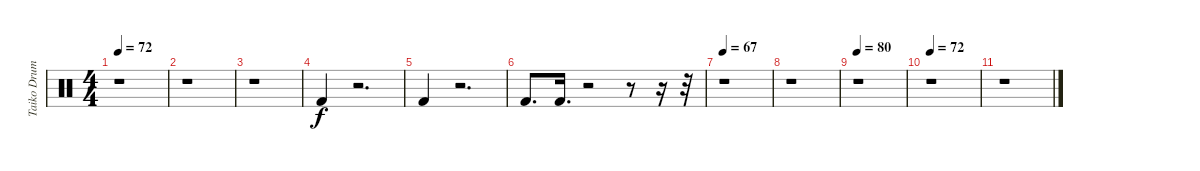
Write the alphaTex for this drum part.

\track ("Taiko Drum" "Taiko Drum") {instrument percussion}
\staff {score}
\articulation defaults
\ts (4 4)
\tempo 72
\clef neutral
\ks c
r.1{dy f} |
r.1 |
r.1 |
"Kick (hit) 2".4 r.2{d} |
"Kick (hit) 2".4 r.2{d} |
"Kick (hit) 2".8{d} "Kick (hit) 2".16{d} r.2 r.8 r.16 r.32 |
\tempo 67
r.1 |
r.1 |
\tempo 80
r.1 |
\tempo 72
r.1 |
r.1
